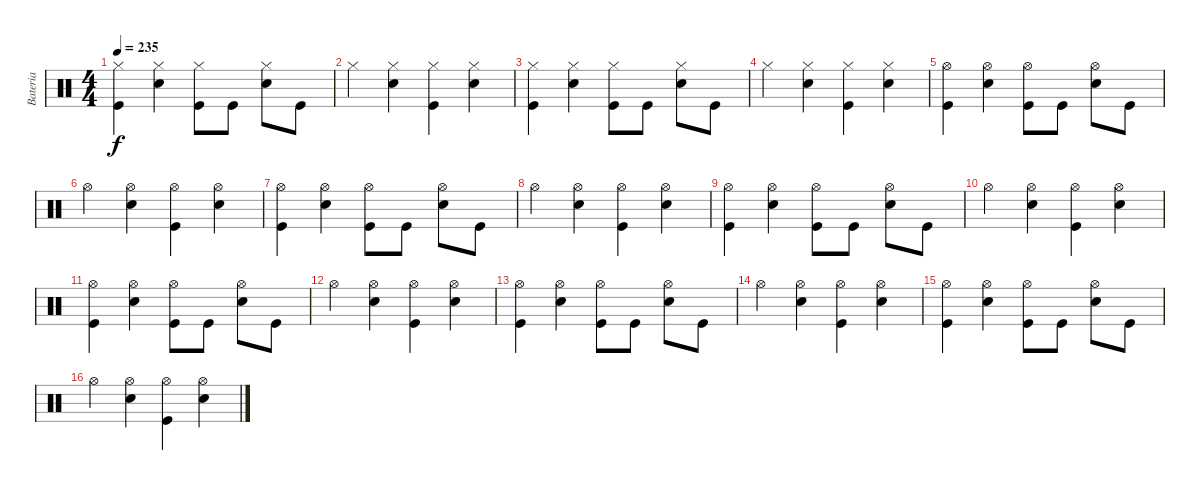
\track ("Bateria" "Bateria") {instrument percussion}
\staff {score}
\articulation defaults
\ts (4 4)
\tempo 235
\clef neutral
\ks c
("Hi-Hat (closed)" "Kick (hit)").4{dy f} ("Hi-Hat (closed)" "Electric Snare (hit)").4 ("Hi-Hat (closed)" "Kick (hit)").8 "Kick (hit)".8 ("Hi-Hat (closed)" "Electric Snare (hit)").8 "Kick (hit)".8 |
"Hi-Hat (closed)".4 ("Hi-Hat (closed)" "Electric Snare (hit)").4 ("Hi-Hat (closed)" "Kick (hit)").4 ("Hi-Hat (closed)" "Electric Snare (hit)").4 |
("Hi-Hat (closed)" "Kick (hit)").4 ("Hi-Hat (closed)" "Electric Snare (hit)").4 ("Hi-Hat (closed)" "Kick (hit)").8 "Kick (hit)".8 ("Hi-Hat (closed)" "Electric Snare (hit)").8 "Kick (hit)".8 |
"Hi-Hat (closed)".4 ("Hi-Hat (closed)" "Electric Snare (hit)").4 ("Hi-Hat (closed)" "Kick (hit)").4 ("Hi-Hat (closed)" "Electric Snare (hit)").4 |
("Hi-Hat (open)" "Kick (hit)").4 ("Hi-Hat (open)" "Electric Snare (hit)").4 ("Hi-Hat (open)" "Kick (hit)").8 "Kick (hit)".8 ("Hi-Hat (open)" "Electric Snare (hit)").8 "Kick (hit)".8 |
"Hi-Hat (open)".4 ("Hi-Hat (open)" "Electric Snare (hit)").4 ("Hi-Hat (open)" "Kick (hit)").4 ("Hi-Hat (open)" "Electric Snare (hit)").4 |
("Hi-Hat (open)" "Kick (hit)").4 ("Hi-Hat (open)" "Electric Snare (hit)").4 ("Hi-Hat (open)" "Kick (hit)").8 "Kick (hit)".8 ("Hi-Hat (open)" "Electric Snare (hit)").8 "Kick (hit)".8 |
"Hi-Hat (open)".4 ("Hi-Hat (open)" "Electric Snare (hit)").4 ("Hi-Hat (open)" "Kick (hit)").4 ("Hi-Hat (open)" "Electric Snare (hit)").4 |
("Hi-Hat (open)" "Kick (hit)").4 ("Hi-Hat (open)" "Electric Snare (hit)").4 ("Hi-Hat (open)" "Kick (hit)").8 "Kick (hit)".8 ("Hi-Hat (open)" "Electric Snare (hit)").8 "Kick (hit)".8 |
"Hi-Hat (open)".4 ("Hi-Hat (open)" "Electric Snare (hit)").4 ("Hi-Hat (open)" "Kick (hit)").4 ("Hi-Hat (open)" "Electric Snare (hit)").4 |
("Hi-Hat (open)" "Kick (hit)").4 ("Hi-Hat (open)" "Electric Snare (hit)").4 ("Hi-Hat (open)" "Kick (hit)").8 "Kick (hit)".8 ("Hi-Hat (open)" "Electric Snare (hit)").8 "Kick (hit)".8 |
"Hi-Hat (open)".4 ("Hi-Hat (open)" "Electric Snare (hit)").4 ("Hi-Hat (open)" "Kick (hit)").4 ("Hi-Hat (open)" "Electric Snare (hit)").4 |
("Hi-Hat (open)" "Kick (hit)").4 ("Hi-Hat (open)" "Electric Snare (hit)").4 ("Hi-Hat (open)" "Kick (hit)").8 "Kick (hit)".8 ("Hi-Hat (open)" "Electric Snare (hit)").8 "Kick (hit)".8 |
"Hi-Hat (open)".4 ("Hi-Hat (open)" "Electric Snare (hit)").4 ("Hi-Hat (open)" "Kick (hit)").4 ("Hi-Hat (open)" "Electric Snare (hit)").4 |
("Hi-Hat (open)" "Kick (hit)").4 ("Hi-Hat (open)" "Electric Snare (hit)").4 ("Hi-Hat (open)" "Kick (hit)").8 "Kick (hit)".8 ("Hi-Hat (open)" "Electric Snare (hit)").8 "Kick (hit)".8 |
"Hi-Hat (open)".4 ("Hi-Hat (open)" "Electric Snare (hit)").4 ("Hi-Hat (open)" "Kick (hit)").4 ("Hi-Hat (open)" "Electric Snare (hit)").4
